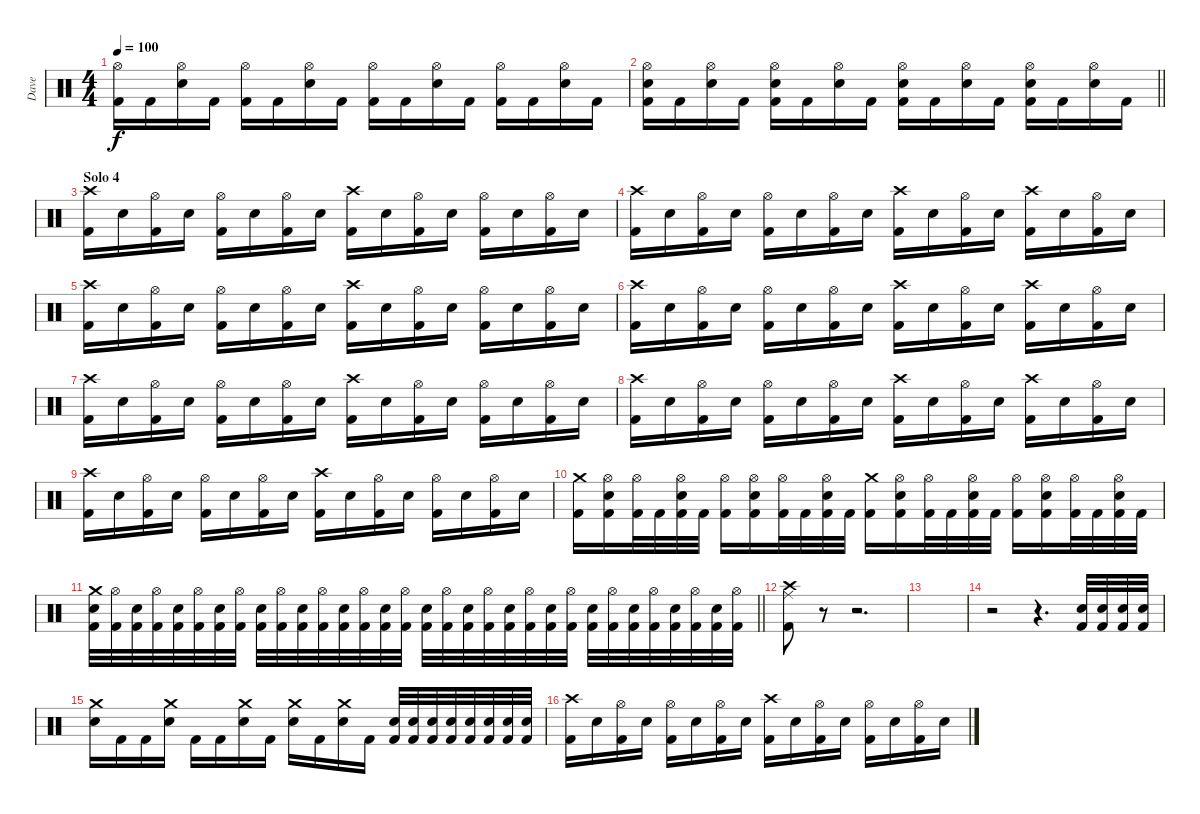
\track ("Dave" "Dave") {instrument percussion}
\staff {score}
\articulation defaults
\ts (4 4)
\tempo 100
\clef neutral
\ks c
("Hi-Hat (open)" "Kick (hit) 2").16{dy f} "Kick (hit) 2".16 ("Hi-Hat (open)" "Snare (hit) 2").16 "Kick (hit) 2".16 ("Hi-Hat (open)" "Kick (hit) 2").16 "Kick (hit) 2".16 ("Hi-Hat (open)" "Snare (hit) 2").16 "Kick (hit) 2".16 ("Hi-Hat (open)" "Kick (hit) 2").16 "Kick (hit) 2".16 ("Hi-Hat (open)" "Snare (hit) 2").16 "Kick (hit) 2".16 ("Hi-Hat (open)" "Kick (hit) 2").16 "Kick (hit) 2".16 ("Hi-Hat (open)" "Snare (hit) 2").16 "Kick (hit) 2".16 |
\barLineRight lightlight
("Hi-Hat (open)" "Snare (hit) 2" "Kick (hit) 2").16 "Kick (hit) 2".16 ("Hi-Hat (open)" "Snare (hit) 2").16 "Kick (hit) 2".16 ("Hi-Hat (open)" "Snare (hit) 2" "Kick (hit) 2").16 "Kick (hit) 2".16 ("Hi-Hat (open)" "Snare (hit) 2").16 "Kick (hit) 2".16 ("Hi-Hat (open)" "Snare (hit) 2" "Kick (hit) 2").16 "Kick (hit) 2".16 ("Hi-Hat (open)" "Snare (hit) 2").16 "Kick (hit) 2".16 ("Hi-Hat (open)" "Snare (hit) 2" "Kick (hit) 2").16 "Kick (hit) 2".16 ("Hi-Hat (open)" "Snare (hit) 2").16 "Kick (hit) 2".16 |
\section ("" "Solo 4")
("Crash high (hit)" "Kick (hit) 2").16 "Snare (hit) 2".16 ("Hi-Hat (open)" "Kick (hit) 2").16 "Snare (hit) 2".16 ("Hi-Hat (open)" "Kick (hit) 2").16 "Snare (hit) 2".16 ("Hi-Hat (open)" "Kick (hit) 2").16 "Snare (hit) 2".16 ("Crash high (hit)" "Kick (hit) 2").16 "Snare (hit) 2".16 ("Hi-Hat (open)" "Kick (hit) 2").16 "Snare (hit) 2".16 ("Hi-Hat (open)" "Kick (hit) 2").16 "Snare (hit) 2".16 ("Hi-Hat (open)" "Kick (hit) 2").16 "Snare (hit) 2".16 |
("Crash high (hit)" "Kick (hit) 2").16 "Snare (hit) 2".16 ("Hi-Hat (open)" "Kick (hit) 2").16 "Snare (hit) 2".16 ("Hi-Hat (open)" "Kick (hit) 2").16 "Snare (hit) 2".16 ("Hi-Hat (open)" "Kick (hit) 2").16 "Snare (hit) 2".16 ("Crash high (hit)" "Kick (hit) 2").16 "Snare (hit) 2".16 ("Hi-Hat (open)" "Kick (hit) 2").16 "Snare (hit) 2".16 ("Crash high (hit)" "Kick (hit) 2").16 "Snare (hit) 2".16 ("Hi-Hat (open)" "Kick (hit) 2").16 "Snare (hit) 2".16 |
("Crash high (hit)" "Kick (hit) 2").16 "Snare (hit) 2".16 ("Hi-Hat (open)" "Kick (hit) 2").16 "Snare (hit) 2".16 ("Hi-Hat (open)" "Kick (hit) 2").16 "Snare (hit) 2".16 ("Hi-Hat (open)" "Kick (hit) 2").16 "Snare (hit) 2".16 ("Crash high (hit)" "Kick (hit) 2").16 "Snare (hit) 2".16 ("Hi-Hat (open)" "Kick (hit) 2").16 "Snare (hit) 2".16 ("Hi-Hat (open)" "Kick (hit) 2").16 "Snare (hit) 2".16 ("Hi-Hat (open)" "Kick (hit) 2").16 "Snare (hit) 2".16 |
("Crash high (hit)" "Kick (hit) 2").16 "Snare (hit) 2".16 ("Hi-Hat (open)" "Kick (hit) 2").16 "Snare (hit) 2".16 ("Hi-Hat (open)" "Kick (hit) 2").16 "Snare (hit) 2".16 ("Hi-Hat (open)" "Kick (hit) 2").16 "Snare (hit) 2".16 ("Crash high (hit)" "Kick (hit) 2").16 "Snare (hit) 2".16 ("Hi-Hat (open)" "Kick (hit) 2").16 "Snare (hit) 2".16 ("Crash high (hit)" "Kick (hit) 2").16 "Snare (hit) 2".16 ("Hi-Hat (open)" "Kick (hit) 2").16 "Snare (hit) 2".16 |
("Crash high (hit)" "Kick (hit) 2").16 "Snare (hit) 2".16 ("Hi-Hat (open)" "Kick (hit) 2").16 "Snare (hit) 2".16 ("Hi-Hat (open)" "Kick (hit) 2").16 "Snare (hit) 2".16 ("Hi-Hat (open)" "Kick (hit) 2").16 "Snare (hit) 2".16 ("Crash high (hit)" "Kick (hit) 2").16 "Snare (hit) 2".16 ("Hi-Hat (open)" "Kick (hit) 2").16 "Snare (hit) 2".16 ("Hi-Hat (open)" "Kick (hit) 2").16 "Snare (hit) 2".16 ("Hi-Hat (open)" "Kick (hit) 2").16 "Snare (hit) 2".16 |
("Crash high (hit)" "Kick (hit) 2").16 "Snare (hit) 2".16 ("Hi-Hat (open)" "Kick (hit) 2").16 "Snare (hit) 2".16 ("Hi-Hat (open)" "Kick (hit) 2").16 "Snare (hit) 2".16 ("Hi-Hat (open)" "Kick (hit) 2").16 "Snare (hit) 2".16 ("Crash high (hit)" "Kick (hit) 2").16 "Snare (hit) 2".16 ("Hi-Hat (open)" "Kick (hit) 2").16 "Snare (hit) 2".16 ("Crash high (hit)" "Kick (hit) 2").16 "Snare (hit) 2".16 ("Hi-Hat (open)" "Kick (hit) 2").16 "Snare (hit) 2".16 |
("Crash high (hit)" "Kick (hit) 2").16 "Snare (hit) 2".16 ("Hi-Hat (open)" "Kick (hit) 2").16 "Snare (hit) 2".16 ("Hi-Hat (open)" "Kick (hit) 2").16 "Snare (hit) 2".16 ("Hi-Hat (open)" "Kick (hit) 2").16 "Snare (hit) 2".16 ("Crash high (hit)" "Kick (hit) 2").16 "Snare (hit) 2".16 ("Hi-Hat (open)" "Kick (hit) 2").16 "Snare (hit) 2".16 ("Hi-Hat (open)" "Kick (hit) 2").16 "Snare (hit) 2".16 ("Hi-Hat (open)" "Kick (hit) 2").16 "Snare (hit) 2".16 |
("Crash medium (hit)" "Kick (hit) 2").16 ("Hi-Hat (open)" "Snare (hit) 2" "Kick (hit) 2").16 ("Hi-Hat (open)" "Kick (hit) 2").32 "Kick (hit) 2".32 ("Hi-Hat (open)" "Snare (hit) 2" "Kick (hit) 2").32 "Kick (hit) 2".32 ("Hi-Hat (open)" "Kick (hit) 2").16 ("Hi-Hat (open)" "Snare (hit) 2" "Kick (hit) 2").16 ("Hi-Hat (open)" "Kick (hit) 2").32 "Kick (hit) 2".32 ("Hi-Hat (open)" "Snare (hit) 2" "Kick (hit) 2").32 "Kick (hit) 2".32 ("Crash medium (hit)" "Kick (hit) 2").16 ("Hi-Hat (open)" "Snare (hit) 2" "Kick (hit) 2").16 ("Hi-Hat (open)" "Kick (hit) 2").32 "Kick (hit) 2".32 ("Hi-Hat (open)" "Snare (hit) 2" "Kick (hit) 2").32 "Kick (hit) 2".32 ("Hi-Hat (open)" "Kick (hit) 2").16 ("Hi-Hat (open)" "Snare (hit) 2" "Kick (hit) 2").16 ("Hi-Hat (open)" "Kick (hit) 2").32 "Kick (hit) 2".32 ("Hi-Hat (open)" "Snare (hit) 2" "Kick (hit) 2").32 "Kick (hit) 2".32 |
\barLineRight lightlight
("Crash medium (hit)" "Snare (hit) 2" "Kick (hit) 2").32 ("Hi-Hat (open)" "Kick (hit) 2").32 ("Snare (hit) 2" "Kick (hit) 2").32 ("Hi-Hat (open)" "Kick (hit) 2").32 ("Snare (hit) 2" "Kick (hit) 2").32 ("Hi-Hat (open)" "Kick (hit) 2").32 ("Snare (hit) 2" "Kick (hit) 2").32 ("Hi-Hat (open)" "Kick (hit) 2").32 ("Snare (hit) 2" "Kick (hit) 2").32 ("Hi-Hat (open)" "Kick (hit) 2").32 ("Snare (hit) 2" "Kick (hit) 2").32 ("Hi-Hat (open)" "Kick (hit) 2").32 ("Snare (hit) 2" "Kick (hit) 2").32 ("Hi-Hat (open)" "Kick (hit) 2").32 ("Snare (hit) 2" "Kick (hit) 2").32 ("Hi-Hat (open)" "Kick (hit) 2").32 ("Snare (hit) 2" "Kick (hit) 2").32 ("Hi-Hat (open)" "Kick (hit) 2").32 ("Snare (hit) 2" "Kick (hit) 2").32 ("Hi-Hat (open)" "Kick (hit) 2").32 ("Snare (hit) 2" "Kick (hit) 2").32 ("Hi-Hat (open)" "Kick (hit) 2").32 ("Snare (hit) 2" "Kick (hit) 2").32 ("Hi-Hat (open)" "Kick (hit) 2").32 ("Snare (hit) 2" "Kick (hit) 2").32 ("Hi-Hat (open)" "Kick (hit) 2").32 ("Snare (hit) 2" "Kick (hit) 2").32 ("Hi-Hat (open)" "Kick (hit) 2").32 ("Snare (hit) 2" "Kick (hit) 2").32 ("Hi-Hat (open)" "Kick (hit) 2").32 ("Snare (hit) 2" "Kick (hit) 2").32 ("Hi-Hat (open)" "Kick (hit) 2").32 |
("Ride (middle)" "Crash high (hit)" "Kick (hit) 2").8 r.8 r.2{d} |
|
r.2 r.4{d} ("Snare (hit) 2" "Kick (hit) 2").32 ("Snare (hit) 2" "Kick (hit) 2").32 ("Snare (hit) 2" "Kick (hit) 2").32 ("Snare (hit) 2" "Kick (hit) 2").32 |
("Crash medium (hit)" "Snare (hit) 2").16 "Kick (hit) 2".16 "Kick (hit) 2".16 ("Crash medium (hit)" "Snare (hit) 2").16 "Kick (hit) 2".16 "Kick (hit) 2".16 ("Crash medium (hit)" "Snare (hit) 2").16 "Kick (hit) 2".16 ("Crash medium (hit)" "Snare (hit) 2").16 "Kick (hit) 2".16 ("Crash medium (hit)" "Snare (hit) 2").16 "Kick (hit) 2".16 ("Snare (hit) 2" "Kick (hit) 2").32 ("Snare (hit) 2" "Kick (hit) 2").32 ("Snare (hit) 2" "Kick (hit) 2").32 ("Snare (hit) 2" "Kick (hit) 2").32 ("Snare (hit) 2" "Kick (hit) 2").32 ("Snare (hit) 2" "Kick (hit) 2").32 ("Snare (hit) 2" "Kick (hit) 2").32 ("Snare (hit) 2" "Kick (hit) 2").32 |
("Crash high (hit)" "Kick (hit) 2").16 "Snare (hit) 2".16 ("Hi-Hat (open)" "Kick (hit) 2").16 "Snare (hit) 2".16 ("Hi-Hat (open)" "Kick (hit) 2").16 "Snare (hit) 2".16 ("Hi-Hat (open)" "Kick (hit) 2").16 "Snare (hit) 2".16 ("Crash high (hit)" "Kick (hit) 2").16 "Snare (hit) 2".16 ("Hi-Hat (open)" "Kick (hit) 2").16 "Snare (hit) 2".16 ("Hi-Hat (open)" "Kick (hit) 2").16 "Snare (hit) 2".16 ("Hi-Hat (open)" "Kick (hit) 2").16 "Snare (hit) 2".16
